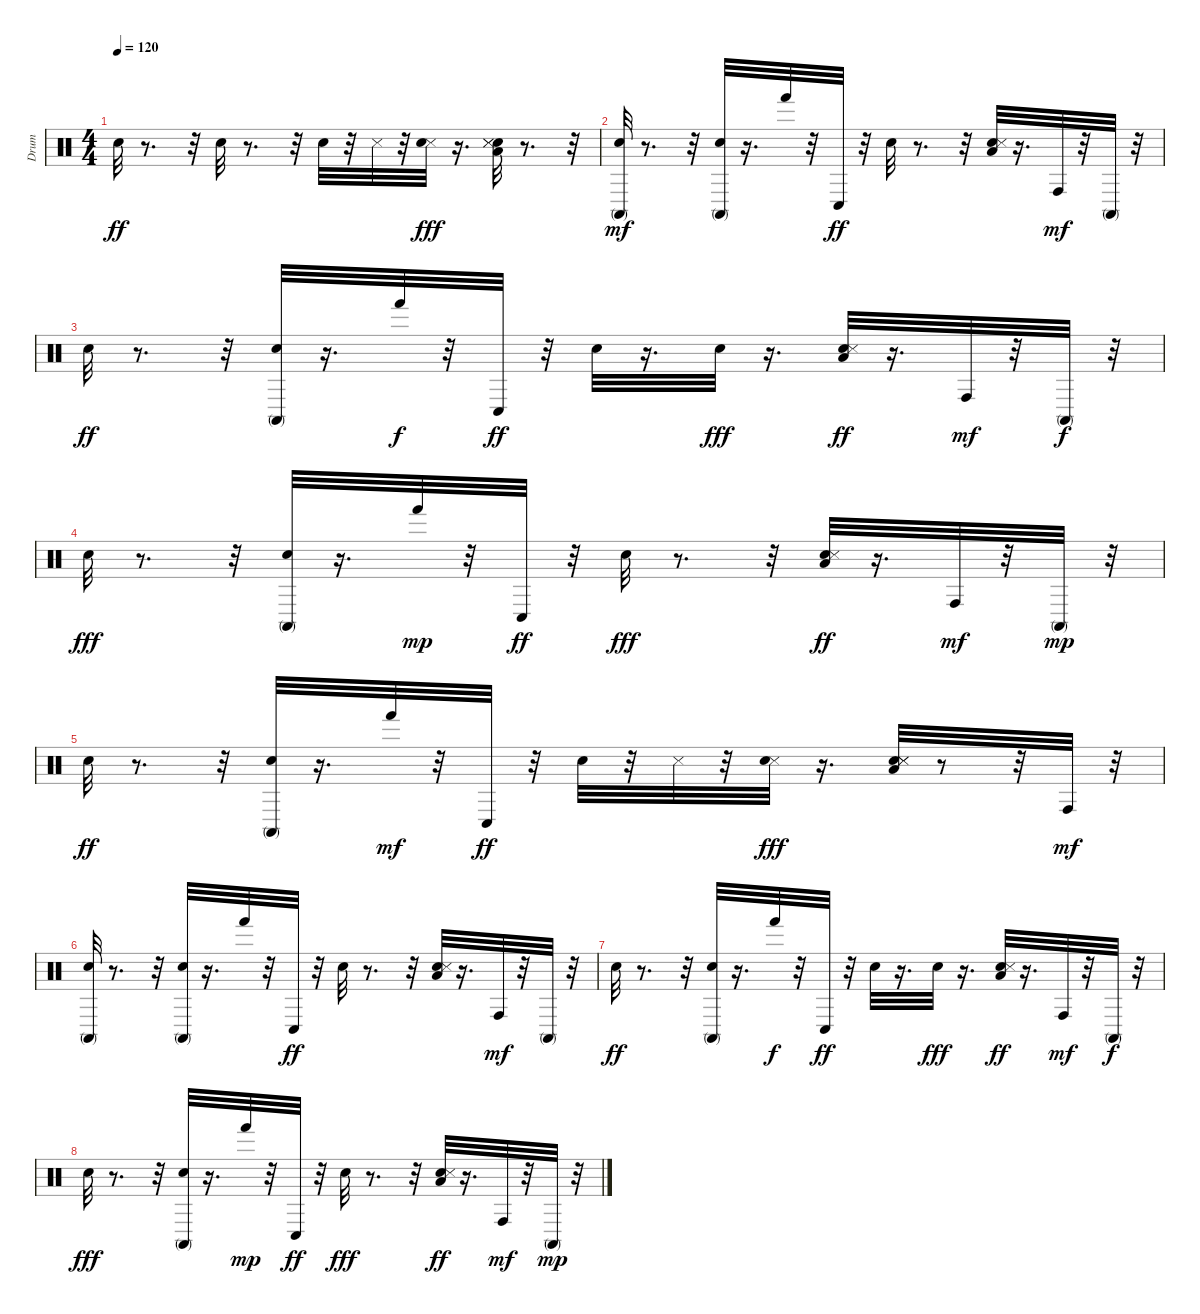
\track ("Drum" "Drum") {instrument percussion}
\staff {score}
\articulation defaults
\ts (4 4)
\tempo 120
\clef neutral
\ks c "Hand Clap (hit)".32{dy ff}
r.8{d} r.32 "Hand Clap (hit)".32 r.8{d} r.32 "Hand Clap (hit)".32 r.32 "Snare (side stick) 3".32 r.32 ("Snare (side stick) 3" "Hand Clap (hit)").32{dy fff} r.16{d} ("Hand Clap (hit)" "Snare (side stick) 3" "Low Floor Tom (hit)" "Snare (side stick) 3").32 r.8{d} r.32 |
("Hand Clap (hit)" "Conga high (mute)").32{dy mf} r.8{d} r.32 ("Hand Clap (hit)" "Conga high (mute)").32 r.16{d} "Hand (hit)".32 r.32 "Conga low (hit)".32{dy ff} r.32 "Hand Clap (hit)".32 r.8{d} r.32 ("Hand Clap (hit)" "Snare (side stick) 3" "Low Floor Tom (hit)").32 r.16{d} "Conga high (hit)".32{dy mf} r.32 "Conga high (mute)".32 r.32 |
"Hand Clap (hit)".32{dy ff} r.8{d} r.32 ("Hand Clap (hit)" "Conga high (mute)").32 r.16{d} "Hand (hit)".32{dy f} r.32 "Conga low (hit)".32{dy ff} r.32 "Hand Clap (hit)".32 r.16{d} "Hand Clap (hit)".32{dy fff} r.16{d} ("Hand Clap (hit)" "Snare (side stick) 3" "Low Floor Tom (hit)").32{dy ff} r.16{d} "Conga high (hit)".32{dy mf} r.32 "Conga high (mute)".32{dy f} r.32 |
"Hand Clap (hit)".32{dy fff} r.8{d} r.32 ("Hand Clap (hit)" "Conga high (mute)").32 r.16{d} "Hand (hit)".32{dy mp} r.32 "Conga low (hit)".32{dy ff} r.32 "Hand Clap (hit)".32{dy fff} r.8{d} r.32 ("Hand Clap (hit)" "Snare (side stick) 3" "Low Floor Tom (hit)").32{dy ff} r.16{d} "Conga high (hit)".32{dy mf} r.32 "Conga high (mute)".32{dy mp} r.32 |
"Hand Clap (hit)".32{dy ff} r.8{d} r.32 ("Hand Clap (hit)" "Conga high (mute)").32 r.16{d} "Hand (hit)".32{dy mf} r.32 "Conga low (hit)".32{dy ff} r.32 "Hand Clap (hit)".32 r.32 "Snare (side stick) 3".32 r.32 ("Snare (side stick) 3" "Hand Clap (hit)").32{dy fff} r.16{d} ("Hand Clap (hit)" "Snare (side stick) 3" "Low Floor Tom (hit)" "Snare (side stick) 3").32 r.8 r.32 "Conga high (hit)".32{dy mf} r.32 |
("Hand Clap (hit)" "Conga high (mute)").32 r.8{d} r.32 ("Hand Clap (hit)" "Conga high (mute)").32 r.16{d} "Hand (hit)".32 r.32 "Conga low (hit)".32{dy ff} r.32 "Hand Clap (hit)".32 r.8{d} r.32 ("Hand Clap (hit)" "Snare (side stick) 3" "Low Floor Tom (hit)").32 r.16{d} "Conga high (hit)".32{dy mf} r.32 "Conga high (mute)".32 r.32 |
"Hand Clap (hit)".32{dy ff} r.8{d} r.32 ("Hand Clap (hit)" "Conga high (mute)").32 r.16{d} "Hand (hit)".32{dy f} r.32 "Conga low (hit)".32{dy ff} r.32 "Hand Clap (hit)".32 r.16{d} "Hand Clap (hit)".32{dy fff} r.16{d} ("Hand Clap (hit)" "Snare (side stick) 3" "Low Floor Tom (hit)").32{dy ff} r.16{d} "Conga high (hit)".32{dy mf} r.32 "Conga high (mute)".32{dy f} r.32 |
"Hand Clap (hit)".32{dy fff} r.8{d} r.32 ("Hand Clap (hit)" "Conga high (mute)").32 r.16{d} "Hand (hit)".32{dy mp} r.32 "Conga low (hit)".32{dy ff} r.32 "Hand Clap (hit)".32{dy fff} r.8{d} r.32 ("Hand Clap (hit)" "Snare (side stick) 3" "Low Floor Tom (hit)").32{dy ff} r.16{d} "Conga high (hit)".32{dy mf} r.32 "Conga high (mute)".32{dy mp} r.32
